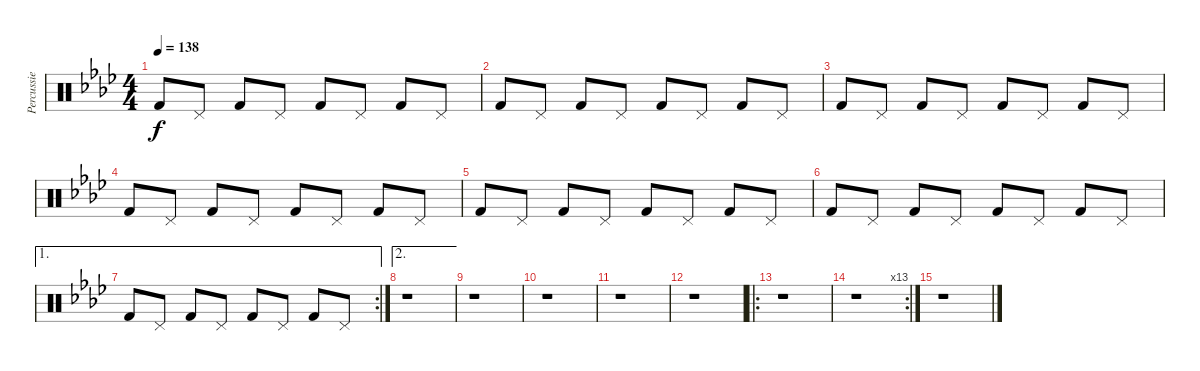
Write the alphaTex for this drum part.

\track ("Percussie" "Percussie") {instrument percussion}
\staff {score}
\articulation defaults
\ts (4 4)
\tempo 138
\clef neutral
\ks ab "Kick (hit) 2".8{dy f} "Pedal Hi-Hat (hit)".8 "Kick (hit) 2".8 "Pedal Hi-Hat (hit)".8 "Kick (hit) 2".8 "Pedal Hi-Hat (hit)".8 "Kick (hit) 2".8 "Pedal Hi-Hat (hit)".8
|
"Kick (hit) 2".8 "Pedal Hi-Hat (hit)".8 "Kick (hit) 2".8 "Pedal Hi-Hat (hit)".8 "Kick (hit) 2".8 "Pedal Hi-Hat (hit)".8 "Kick (hit) 2".8 "Pedal Hi-Hat (hit)".8 |
"Kick (hit) 2".8 "Pedal Hi-Hat (hit)".8 "Kick (hit) 2".8 "Pedal Hi-Hat (hit)".8 "Kick (hit) 2".8 "Pedal Hi-Hat (hit)".8 "Kick (hit) 2".8 "Pedal Hi-Hat (hit)".8 |
"Kick (hit) 2".8 "Pedal Hi-Hat (hit)".8 "Kick (hit) 2".8 "Pedal Hi-Hat (hit)".8 "Kick (hit) 2".8 "Pedal Hi-Hat (hit)".8 "Kick (hit) 2".8 "Pedal Hi-Hat (hit)".8 |
"Kick (hit) 2".8 "Pedal Hi-Hat (hit)".8 "Kick (hit) 2".8 "Pedal Hi-Hat (hit)".8 "Kick (hit) 2".8 "Pedal Hi-Hat (hit)".8 "Kick (hit) 2".8 "Pedal Hi-Hat (hit)".8 |
"Kick (hit) 2".8 "Pedal Hi-Hat (hit)".8 "Kick (hit) 2".8 "Pedal Hi-Hat (hit)".8 "Kick (hit) 2".8 "Pedal Hi-Hat (hit)".8 "Kick (hit) 2".8 "Pedal Hi-Hat (hit)".8 |
\ae 1
\rc 2 "Kick (hit) 2".8 "Pedal Hi-Hat (hit)".8 "Kick (hit) 2".8 "Pedal Hi-Hat (hit)".8 "Kick (hit) 2".8 "Pedal Hi-Hat (hit)".8 "Kick (hit) 2".8 "Pedal Hi-Hat (hit)".8
|
\ae 2
r.1 |
r.1 |
r.1 |
r.1 |
r.1 |
\ro
r.1 |
\rc 13
r.1 |
r.1
